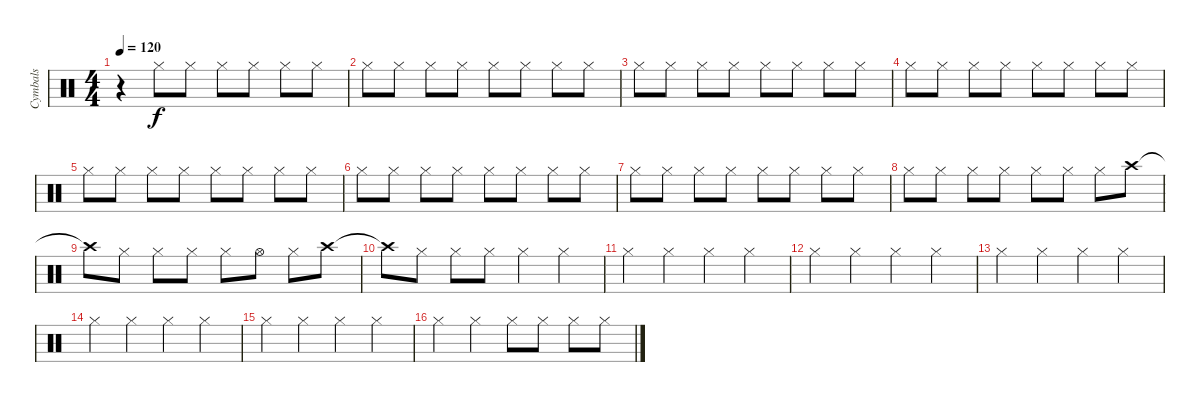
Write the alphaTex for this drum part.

\track ("Cymbals" "Cymbals") {instrument percussion}
\staff {score}
\articulation defaults
\ts (4 4)
\tempo 120
\clef neutral
\ks c
r.4{dy f} "Hi-Hat (closed)".8 "Hi-Hat (closed)".8 "Hi-Hat (closed)".8 "Hi-Hat (closed)".8 "Hi-Hat (closed)".8 "Hi-Hat (closed)".8 |
"Hi-Hat (closed)".8 "Hi-Hat (closed)".8 "Hi-Hat (closed)".8 "Hi-Hat (closed)".8 "Hi-Hat (closed)".8 "Hi-Hat (closed)".8 "Hi-Hat (closed)".8 "Hi-Hat (closed)".8 |
"Hi-Hat (closed)".8 "Hi-Hat (closed)".8 "Hi-Hat (closed)".8 "Hi-Hat (closed)".8 "Hi-Hat (closed)".8 "Hi-Hat (closed)".8 "Hi-Hat (closed)".8 "Hi-Hat (closed)".8 |
"Hi-Hat (closed)".8 "Hi-Hat (closed)".8 "Hi-Hat (closed)".8 "Hi-Hat (closed)".8 "Hi-Hat (closed)".8 "Hi-Hat (closed)".8 "Hi-Hat (closed)".8 "Hi-Hat (closed)".8 |
"Hi-Hat (closed)".8 "Hi-Hat (closed)".8 "Hi-Hat (closed)".8 "Hi-Hat (closed)".8 "Hi-Hat (closed)".8 "Hi-Hat (closed)".8 "Hi-Hat (closed)".8 "Hi-Hat (closed)".8 |
"Hi-Hat (closed)".8 "Hi-Hat (closed)".8 "Hi-Hat (closed)".8 "Hi-Hat (closed)".8 "Hi-Hat (closed)".8 "Hi-Hat (closed)".8 "Hi-Hat (closed)".8 "Hi-Hat (closed)".8 |
"Hi-Hat (closed)".8 "Hi-Hat (closed)".8 "Hi-Hat (closed)".8 "Hi-Hat (closed)".8 "Hi-Hat (closed)".8 "Hi-Hat (closed)".8 "Hi-Hat (closed)".8 "Hi-Hat (closed)".8 |
"Hi-Hat (closed)".8 "Hi-Hat (closed)".8 "Hi-Hat (closed)".8 "Hi-Hat (closed)".8 "Hi-Hat (closed)".8 "Hi-Hat (closed)".8 "Hi-Hat (closed)".8 "Crash high (hit)".8 |
"Crash high (hit)"{t}.8 "Hi-Hat (closed)".8 "Hi-Hat (closed)".8 "Hi-Hat (closed)".8 "Hi-Hat (closed)".8 "Hi-Hat (open)".8 "Hi-Hat (closed)".8 "Crash high (hit)".8 |
"Crash high (hit)"{t}.8 "Hi-Hat (closed)".8 "Hi-Hat (closed)".8 "Hi-Hat (closed)".8 "Hi-Hat (closed)".4 "Hi-Hat (closed)".4 |
"Hi-Hat (closed)".4 "Hi-Hat (closed)".4 "Hi-Hat (closed)".4 "Hi-Hat (closed)".4 |
"Hi-Hat (closed)".4 "Hi-Hat (closed)".4 "Hi-Hat (closed)".4 "Hi-Hat (closed)".4 |
"Hi-Hat (closed)".4 "Hi-Hat (closed)".4 "Hi-Hat (closed)".4 "Hi-Hat (closed)".4 |
"Hi-Hat (closed)".4 "Hi-Hat (closed)".4 "Hi-Hat (closed)".4 "Hi-Hat (closed)".4 |
"Hi-Hat (closed)".4 "Hi-Hat (closed)".4 "Hi-Hat (closed)".4 "Hi-Hat (closed)".4 |
"Hi-Hat (closed)".4 "Hi-Hat (closed)".4 "Hi-Hat (closed)".8 "Hi-Hat (closed)".8 "Hi-Hat (closed)".8 "Hi-Hat (closed)".8
